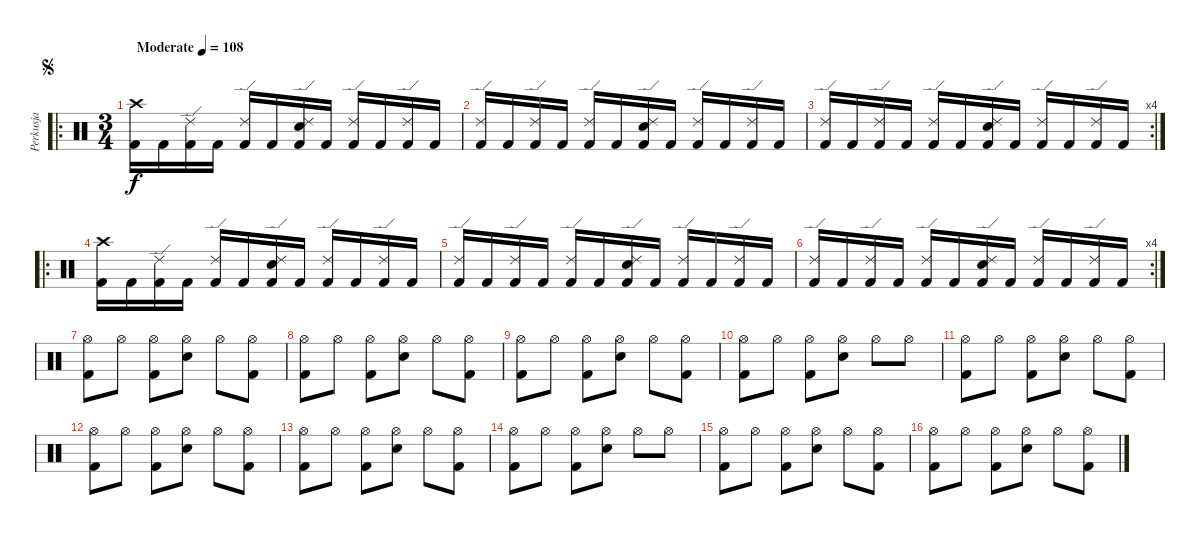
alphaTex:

\track ("Perkusja" "Perkusja") {instrument percussion}
\staff {score}
\articulation defaults
\ro
\ts (3 4)
\jump segno
\tempo (108 "Moderate")
\clef neutral
\ks c
("Crash high (hit)" "Kick (hit) 2").16{dy f} "Kick (hit) 2".16 ("Ride (edge) 2" "Kick (hit) 2").16 "Kick (hit) 2".16 ("Ride (edge) 2" "Kick (hit) 2").16 "Kick (hit) 2".16 ("Ride (edge) 2" "Electric Snare (hit)" "Kick (hit) 2").16 "Kick (hit) 2".16 ("Ride (edge) 2" "Kick (hit) 2").16 "Kick (hit) 2".16 ("Ride (edge) 2" "Kick (hit) 2").16 "Kick (hit) 2".16 |
("Ride (edge) 2" "Kick (hit) 2").16 "Kick (hit) 2".16 ("Ride (edge) 2" "Kick (hit) 2").16 "Kick (hit) 2".16 ("Ride (edge) 2" "Kick (hit) 2").16 "Kick (hit) 2".16 ("Ride (edge) 2" "Electric Snare (hit)" "Kick (hit) 2").16 "Kick (hit) 2".16 ("Ride (edge) 2" "Kick (hit) 2").16 "Kick (hit) 2".16 ("Ride (edge) 2" "Kick (hit) 2").16 "Kick (hit) 2".16 |
\rc 4
("Ride (edge) 2" "Kick (hit) 2").16 "Kick (hit) 2".16 ("Ride (edge) 2" "Kick (hit) 2").16 "Kick (hit) 2".16 ("Ride (edge) 2" "Kick (hit) 2").16 "Kick (hit) 2".16 ("Ride (edge) 2" "Electric Snare (hit)" "Kick (hit) 2").16 "Kick (hit) 2".16 ("Ride (edge) 2" "Kick (hit) 2").16 "Kick (hit) 2".16 ("Ride (edge) 2" "Kick (hit) 2").16 "Kick (hit) 2".16 |
\ro
("Crash high (hit)" "Kick (hit) 2").16 "Kick (hit) 2".16 ("Ride (edge) 2" "Kick (hit) 2").16 "Kick (hit) 2".16 ("Ride (edge) 2" "Kick (hit) 2").16 "Kick (hit) 2".16 ("Ride (edge) 2" "Electric Snare (hit)" "Kick (hit) 2").16 "Kick (hit) 2".16 ("Ride (edge) 2" "Kick (hit) 2").16 "Kick (hit) 2".16 ("Ride (edge) 2" "Kick (hit) 2").16 "Kick (hit) 2".16 |
("Ride (edge) 2" "Kick (hit) 2").16 "Kick (hit) 2".16 ("Ride (edge) 2" "Kick (hit) 2").16 "Kick (hit) 2".16 ("Ride (edge) 2" "Kick (hit) 2").16 "Kick (hit) 2".16 ("Ride (edge) 2" "Electric Snare (hit)" "Kick (hit) 2").16 "Kick (hit) 2".16 ("Ride (edge) 2" "Kick (hit) 2").16 "Kick (hit) 2".16 ("Ride (edge) 2" "Kick (hit) 2").16 "Kick (hit) 2".16 |
\rc 4
("Ride (edge) 2" "Kick (hit) 2").16 "Kick (hit) 2".16 ("Ride (edge) 2" "Kick (hit) 2").16 "Kick (hit) 2".16 ("Ride (edge) 2" "Kick (hit) 2").16 "Kick (hit) 2".16 ("Ride (edge) 2" "Electric Snare (hit)" "Kick (hit) 2").16 "Kick (hit) 2".16 ("Ride (edge) 2" "Kick (hit) 2").16 "Kick (hit) 2".16 ("Ride (edge) 2" "Kick (hit) 2").16 "Kick (hit) 2".16 |
("Hi-Hat (open)" "Kick (hit) 2").8 "Hi-Hat (open)".8 ("Hi-Hat (open)" "Kick (hit) 2").8 ("Hi-Hat (open)" "Electric Snare (hit)").8 "Hi-Hat (open)".8 ("Hi-Hat (open)" "Kick (hit) 2").8 |
("Hi-Hat (open)" "Kick (hit) 2").8 "Hi-Hat (open)".8 ("Hi-Hat (open)" "Kick (hit) 2").8 ("Hi-Hat (open)" "Electric Snare (hit)").8 "Hi-Hat (open)".8 ("Hi-Hat (open)" "Kick (hit) 2").8 |
("Hi-Hat (open)" "Kick (hit) 2").8 "Hi-Hat (open)".8 ("Hi-Hat (open)" "Kick (hit) 2").8 ("Hi-Hat (open)" "Electric Snare (hit)").8 "Hi-Hat (open)".8 ("Hi-Hat (open)" "Kick (hit) 2").8 |
("Hi-Hat (open)" "Kick (hit) 2").8 "Hi-Hat (open)".8 ("Hi-Hat (open)" "Kick (hit) 2").8 ("Hi-Hat (open)" "Electric Snare (hit)").8 "Hi-Hat (open)".8 "Hi-Hat (open)".8 |
("Hi-Hat (open)" "Kick (hit) 2").8 "Hi-Hat (open)".8 ("Hi-Hat (open)" "Kick (hit) 2").8 ("Hi-Hat (open)" "Electric Snare (hit)").8 "Hi-Hat (open)".8 ("Hi-Hat (open)" "Kick (hit) 2").8 |
("Hi-Hat (open)" "Kick (hit) 2").8 "Hi-Hat (open)".8 ("Hi-Hat (open)" "Kick (hit) 2").8 ("Hi-Hat (open)" "Electric Snare (hit)").8 "Hi-Hat (open)".8 ("Hi-Hat (open)" "Kick (hit) 2").8 |
("Hi-Hat (open)" "Kick (hit) 2").8 "Hi-Hat (open)".8 ("Hi-Hat (open)" "Kick (hit) 2").8 ("Hi-Hat (open)" "Electric Snare (hit)").8 "Hi-Hat (open)".8 ("Hi-Hat (open)" "Kick (hit) 2").8 |
("Hi-Hat (open)" "Kick (hit) 2").8 "Hi-Hat (open)".8 ("Hi-Hat (open)" "Kick (hit) 2").8 ("Hi-Hat (open)" "Electric Snare (hit)").8 "Hi-Hat (open)".8 "Hi-Hat (open)".8 |
("Hi-Hat (open)" "Kick (hit) 2").8 "Hi-Hat (open)".8 ("Hi-Hat (open)" "Kick (hit) 2").8 ("Hi-Hat (open)" "Electric Snare (hit)").8 "Hi-Hat (open)".8 ("Hi-Hat (open)" "Kick (hit) 2").8 |
("Hi-Hat (open)" "Kick (hit) 2").8 "Hi-Hat (open)".8 ("Hi-Hat (open)" "Kick (hit) 2").8 ("Hi-Hat (open)" "Electric Snare (hit)").8 "Hi-Hat (open)".8 ("Hi-Hat (open)" "Kick (hit) 2").8
